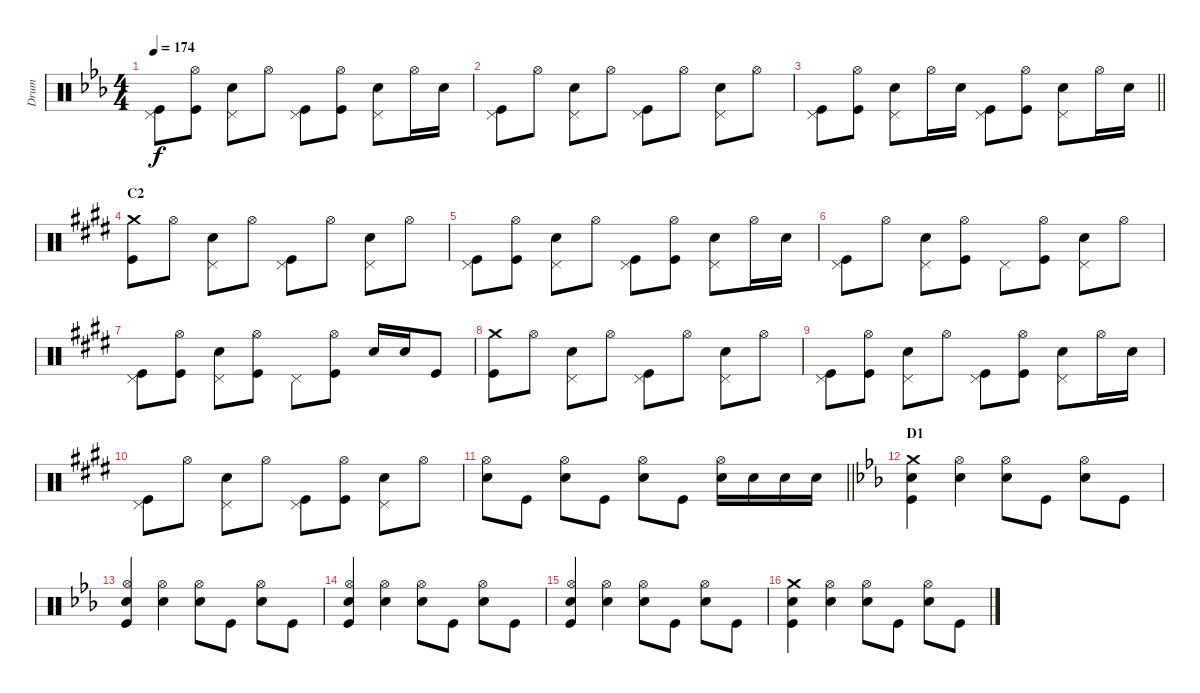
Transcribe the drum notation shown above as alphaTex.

\track ("Drum" "Drum") {instrument percussion}
\staff {score}
\articulation defaults
\ts (4 4)
\tempo 174
\clef neutral
\ks eb
("Pedal Hi-Hat (hit)" "Kick (hit)").8{dy f} ("Hi-Hat (open)" "Kick (hit)").8 ("Pedal Hi-Hat (hit)" "Snare (hit) 2").8 "Hi-Hat (open)".8 ("Pedal Hi-Hat (hit)" "Kick (hit)").8 ("Hi-Hat (open)" "Kick (hit)").8 ("Pedal Hi-Hat (hit)" "Snare (hit) 2").8 "Hi-Hat (open)".16 "Snare (hit) 2".16 |
("Pedal Hi-Hat (hit)" "Kick (hit)").8 "Hi-Hat (open)".8 ("Pedal Hi-Hat (hit)" "Snare (hit) 2").8 "Hi-Hat (open)".8 ("Pedal Hi-Hat (hit)" "Kick (hit)").8 "Hi-Hat (open)".8 ("Pedal Hi-Hat (hit)" "Snare (hit) 2").8 "Hi-Hat (open)".8 |
\barLineRight lightlight
("Pedal Hi-Hat (hit)" "Kick (hit)").8 ("Hi-Hat (open)" "Kick (hit)").8 ("Pedal Hi-Hat (hit)" "Snare (hit) 2").8 "Hi-Hat (open)".16 "Snare (hit) 2".16 ("Pedal Hi-Hat (hit)" "Kick (hit)").8 ("Hi-Hat (open)" "Kick (hit)").8 ("Pedal Hi-Hat (hit)" "Snare (hit) 2").8 "Hi-Hat (open)".16 "Snare (hit) 2".16 |
\section ("" "C2")
\ks e
("Crash medium (hit)" "Kick (hit)").8 "Hi-Hat (open)".8 ("Pedal Hi-Hat (hit)" "Snare (hit) 2").8 "Hi-Hat (open)".8 ("Pedal Hi-Hat (hit)" "Kick (hit)").8 "Hi-Hat (open)".8 ("Pedal Hi-Hat (hit)" "Snare (hit) 2").8 "Hi-Hat (open)".8 |
("Pedal Hi-Hat (hit)" "Kick (hit)").8 ("Hi-Hat (open)" "Kick (hit)").8 ("Pedal Hi-Hat (hit)" "Snare (hit) 2").8 "Hi-Hat (open)".8 ("Pedal Hi-Hat (hit)" "Kick (hit)").8 ("Hi-Hat (open)" "Kick (hit)").8 ("Pedal Hi-Hat (hit)" "Snare (hit) 2").8 "Hi-Hat (open)".16 "Snare (hit) 2".16 |
("Pedal Hi-Hat (hit)" "Kick (hit)").8 "Hi-Hat (open)".8 ("Pedal Hi-Hat (hit)" "Snare (hit) 2").8 ("Hi-Hat (open)" "Kick (hit)").8 "Pedal Hi-Hat (hit)".8 ("Hi-Hat (open)" "Kick (hit)").8 ("Pedal Hi-Hat (hit)" "Snare (hit) 2").8 "Hi-Hat (open)".8 |
("Pedal Hi-Hat (hit)" "Kick (hit)").8 ("Hi-Hat (open)" "Kick (hit)").8 ("Pedal Hi-Hat (hit)" "Snare (hit) 2").8 ("Hi-Hat (open)" "Kick (hit)").8 "Pedal Hi-Hat (hit)".8 ("Hi-Hat (open)" "Kick (hit)").8 "Snare (hit) 2".16 "Snare (hit) 2".16 "Kick (hit)".8 |
("Crash medium (hit)" "Kick (hit)").8 "Hi-Hat (open)".8 ("Pedal Hi-Hat (hit)" "Snare (hit) 2").8 "Hi-Hat (open)".8 ("Pedal Hi-Hat (hit)" "Kick (hit)").8 "Hi-Hat (open)".8 ("Pedal Hi-Hat (hit)" "Snare (hit) 2").8 "Hi-Hat (open)".8 |
("Pedal Hi-Hat (hit)" "Kick (hit)").8 ("Hi-Hat (open)" "Kick (hit)").8 ("Pedal Hi-Hat (hit)" "Snare (hit) 2").8 "Hi-Hat (open)".8 ("Pedal Hi-Hat (hit)" "Kick (hit)").8 ("Hi-Hat (open)" "Kick (hit)").8 ("Pedal Hi-Hat (hit)" "Snare (hit) 2").8 "Hi-Hat (open)".16 "Snare (hit) 2".16 |
("Pedal Hi-Hat (hit)" "Kick (hit)").8 "Hi-Hat (open)".8 ("Pedal Hi-Hat (hit)" "Snare (hit) 2").8 "Hi-Hat (open)".8 ("Pedal Hi-Hat (hit)" "Kick (hit)").8 ("Hi-Hat (open)" "Kick (hit)").8 ("Pedal Hi-Hat (hit)" "Snare (hit) 2").8 "Hi-Hat (open)".8 |
\barLineRight lightlight
("Hi-Hat (open)" "Snare (hit) 2").8 "Kick (hit)".8 ("Hi-Hat (open)" "Snare (hit) 2").8 "Kick (hit)".8 ("Hi-Hat (open)" "Snare (hit) 2").8 "Kick (hit)".8 ("Hi-Hat (open)" "Snare (hit) 2").16 "Snare (hit) 2".16 "Snare (hit) 2".16 "Snare (hit) 2".16 |
\section ("" "D1")
\ks eb
("Crash medium (hit)" "Snare (hit) 2" "Kick (hit)").4 ("Hi-Hat (open)" "Snare (hit) 2").4 ("Hi-Hat (open)" "Snare (hit) 2").8 "Kick (hit)".8 ("Hi-Hat (open)" "Snare (hit) 2").8 "Kick (hit)".8 |
("Hi-Hat (open)" "Snare (hit) 2" "Kick (hit)").4 ("Hi-Hat (open)" "Snare (hit) 2").4 ("Hi-Hat (open)" "Snare (hit) 2").8 "Kick (hit)".8 ("Hi-Hat (open)" "Snare (hit) 2").8 "Kick (hit)".8 |
("Hi-Hat (open)" "Snare (hit) 2" "Kick (hit)").4 ("Hi-Hat (open)" "Snare (hit) 2").4 ("Hi-Hat (open)" "Snare (hit) 2").8 "Kick (hit)".8 ("Hi-Hat (open)" "Snare (hit) 2").8 "Kick (hit)".8 |
("Hi-Hat (open)" "Snare (hit) 2" "Kick (hit)").4 ("Hi-Hat (open)" "Snare (hit) 2").4 ("Hi-Hat (open)" "Snare (hit) 2").8 "Kick (hit)".8 ("Hi-Hat (open)" "Snare (hit) 2").8 "Kick (hit)".8 |
("Crash medium (hit)" "Snare (hit) 2" "Kick (hit)").4 ("Hi-Hat (open)" "Snare (hit) 2").4 ("Hi-Hat (open)" "Snare (hit) 2").8 "Kick (hit)".8 ("Hi-Hat (open)" "Snare (hit) 2").8 "Kick (hit)".8
